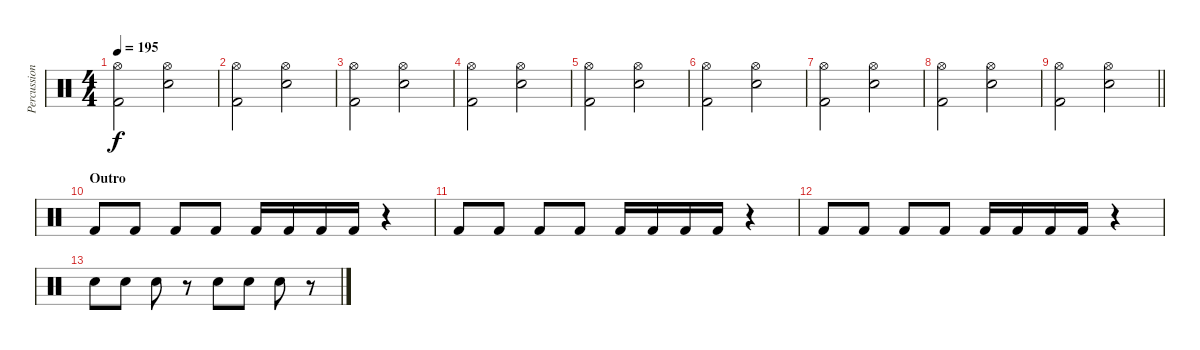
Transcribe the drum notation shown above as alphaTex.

\track ("Percussion" "Percussion") {instrument percussion}
\staff {score}
\articulation defaults
\ts (4 4)
\tempo 195
\clef neutral
\ks c
("Hi-Hat (open)" "Kick (hit) 2").2{dy f} ("Hi-Hat (open)" "Snare (hit) 2").2 |
("Hi-Hat (open)" "Kick (hit) 2").2 ("Hi-Hat (open)" "Snare (hit) 2").2 |
("Hi-Hat (open)" "Kick (hit) 2").2 ("Hi-Hat (open)" "Snare (hit) 2").2 |
("Hi-Hat (open)" "Kick (hit) 2").2 ("Hi-Hat (open)" "Snare (hit) 2").2 |
("Hi-Hat (open)" "Kick (hit) 2").2 ("Hi-Hat (open)" "Snare (hit) 2").2 |
("Hi-Hat (open)" "Kick (hit) 2").2 ("Hi-Hat (open)" "Snare (hit) 2").2 |
("Hi-Hat (open)" "Kick (hit) 2").2 ("Hi-Hat (open)" "Snare (hit) 2").2 |
("Hi-Hat (open)" "Kick (hit) 2").2 ("Hi-Hat (open)" "Snare (hit) 2").2 |
\barLineRight lightlight
("Hi-Hat (open)" "Kick (hit) 2").2 ("Hi-Hat (open)" "Snare (hit) 2").2 |
\section ("" "Outro")
"Kick (hit) 2".8 "Kick (hit) 2".8 "Kick (hit) 2".8 "Kick (hit) 2".8 "Kick (hit) 2".16 "Kick (hit) 2".16 "Kick (hit) 2".16 "Kick (hit) 2".16 r.4 |
"Kick (hit) 2".8 "Kick (hit) 2".8 "Kick (hit) 2".8 "Kick (hit) 2".8 "Kick (hit) 2".16 "Kick (hit) 2".16 "Kick (hit) 2".16 "Kick (hit) 2".16 r.4 |
"Kick (hit) 2".8 "Kick (hit) 2".8 "Kick (hit) 2".8 "Kick (hit) 2".8 "Kick (hit) 2".16 "Kick (hit) 2".16 "Kick (hit) 2".16 "Kick (hit) 2".16 r.4 |
"Snare (hit) 2".8 "Snare (hit) 2".8 "Snare (hit) 2".8 r.8 "Snare (hit) 2".8 "Snare (hit) 2".8 "Snare (hit) 2".8 r.8
